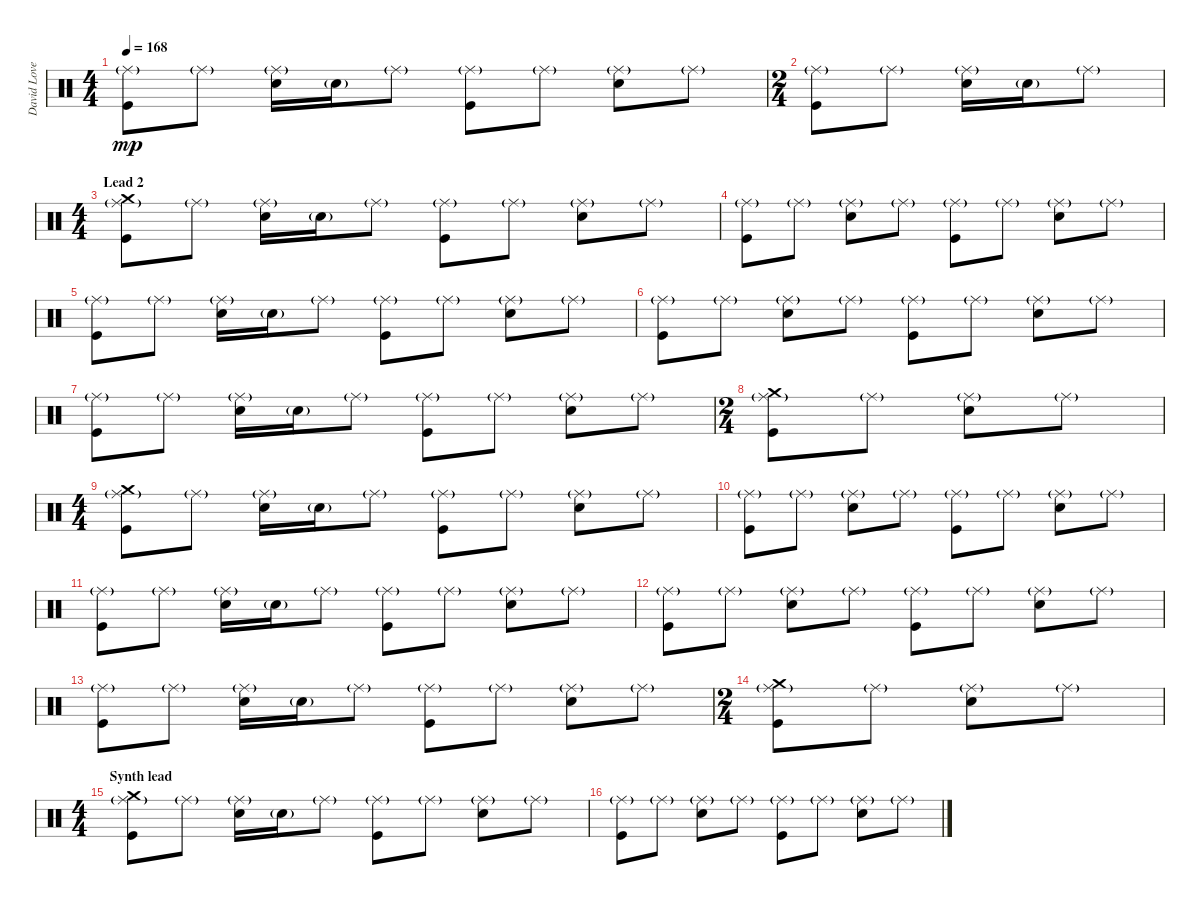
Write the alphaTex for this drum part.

\track ("David Lovering" "David Love") {instrument percussion}
\staff {score}
\articulation defaults
\ts (4 4)
\tempo 168
\clef neutral
\ks c
("Ride (middle)"{g} "Kick (hit)").8{dy mp} "Ride (middle)"{g}.8 ("Ride (middle)"{g} "Snare (hit) 2").16 "Snare (hit) 2"{g}.16 "Ride (middle)"{g}.8 ("Ride (middle)"{g} "Kick (hit)").8 "Ride (middle)"{g}.8 ("Ride (middle)"{g} "Snare (hit) 2").8 "Ride (middle)"{g}.8 |
\ts (2 4)
("Ride (middle)"{g} "Kick (hit)").8 "Ride (middle)"{g}.8 ("Ride (middle)"{g} "Snare (hit) 2").16 "Snare (hit) 2"{g}.16 "Ride (middle)"{g}.8 |
\ts (4 4)
\section ("" "Lead 2")
("Ride (middle)"{g} "Crash medium (hit)" "Kick (hit)").8 "Ride (middle)"{g}.8 ("Ride (middle)"{g} "Snare (hit) 2").16 "Snare (hit) 2"{g}.16 "Ride (middle)"{g}.8 ("Ride (middle)"{g} "Kick (hit)").8 "Ride (middle)"{g}.8 ("Ride (middle)"{g} "Snare (hit) 2").8 "Ride (middle)"{g}.8 |
("Ride (middle)"{g} "Kick (hit)").8 "Ride (middle)"{g}.8 ("Ride (middle)"{g} "Snare (hit) 2").8 "Ride (middle)"{g}.8 ("Ride (middle)"{g} "Kick (hit)").8 "Ride (middle)"{g}.8 ("Ride (middle)"{g} "Snare (hit) 2").8 "Ride (middle)"{g}.8 |
("Ride (middle)"{g} "Kick (hit)").8 "Ride (middle)"{g}.8 ("Ride (middle)"{g} "Snare (hit) 2").16 "Snare (hit) 2"{g}.16 "Ride (middle)"{g}.8 ("Ride (middle)"{g} "Kick (hit)").8 "Ride (middle)"{g}.8 ("Ride (middle)"{g} "Snare (hit) 2").8 "Ride (middle)"{g}.8 |
("Ride (middle)"{g} "Kick (hit)").8 "Ride (middle)"{g}.8 ("Ride (middle)"{g} "Snare (hit) 2").8 "Ride (middle)"{g}.8 ("Ride (middle)"{g} "Kick (hit)").8 "Ride (middle)"{g}.8 ("Ride (middle)"{g} "Snare (hit) 2").8 "Ride (middle)"{g}.8 |
("Ride (middle)"{g} "Kick (hit)").8 "Ride (middle)"{g}.8 ("Ride (middle)"{g} "Snare (hit) 2").16 "Snare (hit) 2"{g}.16 "Ride (middle)"{g}.8 ("Ride (middle)"{g} "Kick (hit)").8 "Ride (middle)"{g}.8 ("Ride (middle)"{g} "Snare (hit) 2").8 "Ride (middle)"{g}.8 |
\ts (2 4)
("Ride (middle)"{g} "Crash medium (hit)" "Kick (hit)").8 "Ride (middle)"{g}.8 ("Ride (middle)"{g} "Snare (hit) 2").8 "Ride (middle)"{g}.8 |
\ts (4 4)
("Ride (middle)"{g} "Crash medium (hit)" "Kick (hit)").8 "Ride (middle)"{g}.8 ("Ride (middle)"{g} "Snare (hit) 2").16 "Snare (hit) 2"{g}.16 "Ride (middle)"{g}.8 ("Ride (middle)"{g} "Kick (hit)").8 "Ride (middle)"{g}.8 ("Ride (middle)"{g} "Snare (hit) 2").8 "Ride (middle)"{g}.8 |
("Ride (middle)"{g} "Kick (hit)").8 "Ride (middle)"{g}.8 ("Ride (middle)"{g} "Snare (hit) 2").8 "Ride (middle)"{g}.8 ("Ride (middle)"{g} "Kick (hit)").8 "Ride (middle)"{g}.8 ("Ride (middle)"{g} "Snare (hit) 2").8 "Ride (middle)"{g}.8 |
("Ride (middle)"{g} "Kick (hit)").8 "Ride (middle)"{g}.8 ("Ride (middle)"{g} "Snare (hit) 2").16 "Snare (hit) 2"{g}.16 "Ride (middle)"{g}.8 ("Ride (middle)"{g} "Kick (hit)").8 "Ride (middle)"{g}.8 ("Ride (middle)"{g} "Snare (hit) 2").8 "Ride (middle)"{g}.8 |
("Ride (middle)"{g} "Kick (hit)").8 "Ride (middle)"{g}.8 ("Ride (middle)"{g} "Snare (hit) 2").8 "Ride (middle)"{g}.8 ("Ride (middle)"{g} "Kick (hit)").8 "Ride (middle)"{g}.8 ("Ride (middle)"{g} "Snare (hit) 2").8 "Ride (middle)"{g}.8 |
("Ride (middle)"{g} "Kick (hit)").8 "Ride (middle)"{g}.8 ("Ride (middle)"{g} "Snare (hit) 2").16 "Snare (hit) 2"{g}.16 "Ride (middle)"{g}.8 ("Ride (middle)"{g} "Kick (hit)").8 "Ride (middle)"{g}.8 ("Ride (middle)"{g} "Snare (hit) 2").8 "Ride (middle)"{g}.8 |
\ts (2 4)
("Ride (middle)"{g} "Crash medium (hit)" "Kick (hit)").8 "Ride (middle)"{g}.8 ("Ride (middle)"{g} "Snare (hit) 2").8 "Ride (middle)"{g}.8 |
\ts (4 4)
\section ("" "Synth lead")
("Ride (middle)"{g} "Crash medium (hit)" "Kick (hit)").8 "Ride (middle)"{g}.8 ("Ride (middle)"{g} "Snare (hit) 2").16 "Snare (hit) 2"{g}.16 "Ride (middle)"{g}.8 ("Ride (middle)"{g} "Kick (hit)").8 "Ride (middle)"{g}.8 ("Ride (middle)"{g} "Snare (hit) 2").8 "Ride (middle)"{g}.8 |
("Ride (middle)"{g} "Kick (hit)").8 "Ride (middle)"{g}.8 ("Ride (middle)"{g} "Snare (hit) 2").8 "Ride (middle)"{g}.8 ("Ride (middle)"{g} "Kick (hit)").8 "Ride (middle)"{g}.8 ("Ride (middle)"{g} "Snare (hit) 2").8 "Ride (middle)"{g}.8
